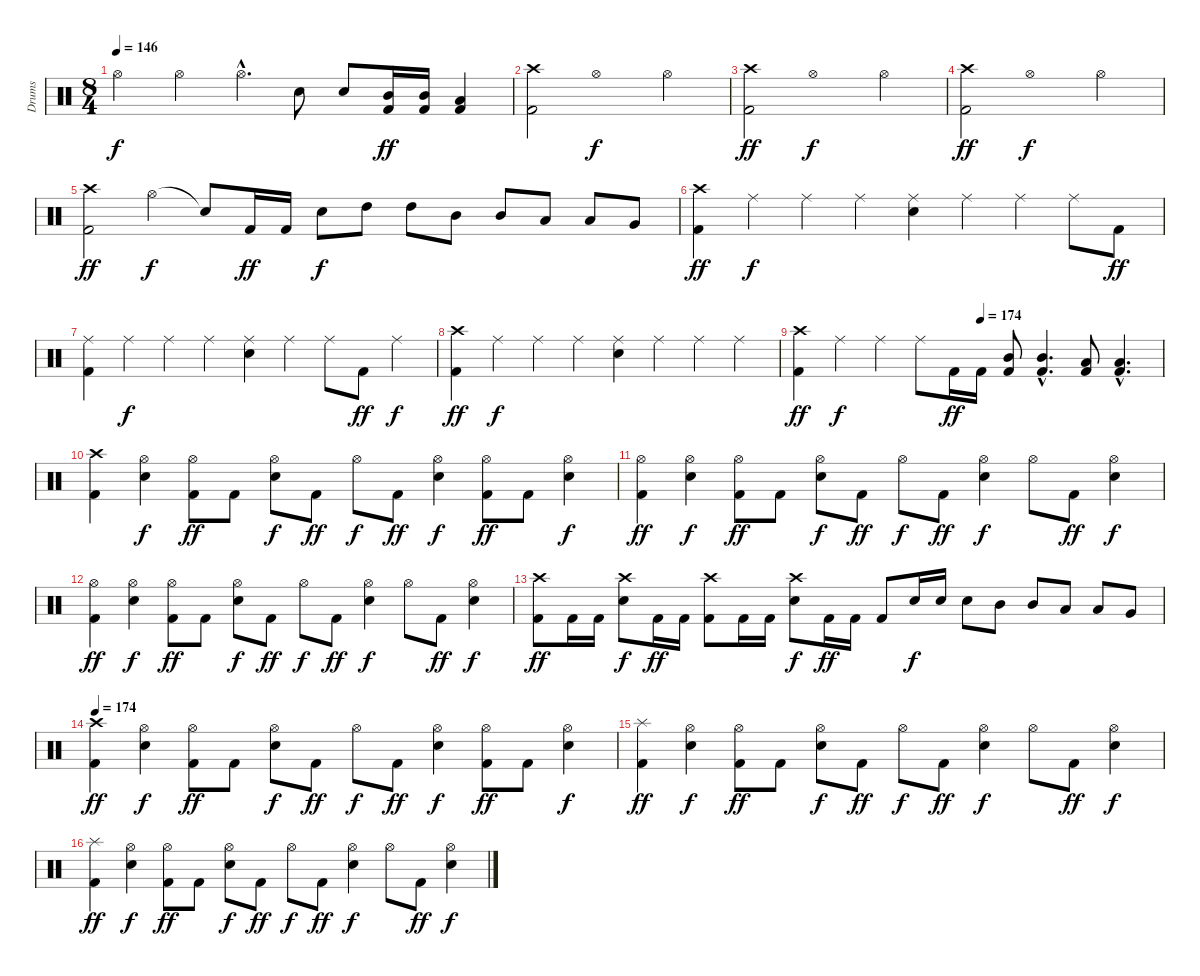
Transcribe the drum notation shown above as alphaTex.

\track ("Drums" "Drums") {instrument percussion}
\staff {score}
\articulation defaults
\ts (8 4)
\tempo 146
\clef neutral
\ks c "Hi-Hat (open)".2{dy f} "Hi-Hat (open)".2 "Hi-Hat (open)"{hac}.4{d} "Snare (hit) 2".8 "Snare (hit) 2".8
("Mid Tom (hit)" "Kick (hit) 2").16{dy ff} ("Mid Tom (hit)" "Kick (hit) 2").16 ("Low Tom (hit)" "Kick (hit) 2").4 |
("Crash high (hit)" "Kick (hit) 2").2 "Hi-Hat (open)".1{dy f} "Hi-Hat (open)".2 |
("Crash high (hit)" "Kick (hit) 2").2{dy ff} "Hi-Hat (open)".1{dy f} "Hi-Hat (open)".2 |
("Crash high (hit)" "Kick (hit) 2").2{dy ff} "Hi-Hat (open)".1{dy f} "Hi-Hat (open)".2 |
("Crash high (hit)" "Kick (hit) 2").2{dy ff} "Hi-Hat (open)".4{dy f} "Snare (hit)"{t}.8 "Kick (hit) 2".16{dy ff} "Kick (hit) 2".16 "Snare (hit) 2".8{dy f} "High Tom (hit)".8 "High Tom (hit)".8 "Mid Tom (hit)".8 "Mid Tom (hit)".8 "Low Tom (hit)".8 "Low Tom (hit)".8 "Very Low Tom (hit)".8 |
("Crash high (hit)" "Kick (hit) 2").4{dy ff} "Ride (middle)".4{dy f} "Ride (middle)".4 "Ride (middle)".4 ("Ride (middle)" "Snare (hit) 2").4 "Ride (middle)".4 "Ride (middle)".4 "Ride (middle)".8 "Kick (hit) 2".8{dy ff} |
("Ride (middle)" "Kick (hit) 2").4 "Ride (middle)".4{dy f} "Ride (middle)".4 "Ride (middle)".4 ("Ride (middle)" "Snare (hit) 2").4 "Ride (middle)".4 "Ride (middle)".8 "Kick (hit) 2".8{dy ff} "Ride (middle)".4{dy f} |
("Crash high (hit)" "Kick (hit) 2").4{dy ff} "Ride (middle)".4{dy f} "Ride (middle)".4 "Ride (middle)".4 ("Ride (middle)" "Snare (hit) 2").4 "Ride (middle)".4 "Ride (middle)".4 "Ride (middle)".4 |
\tempo (174 0.5)
("Crash high (hit)" "Kick (hit) 2").4{dy ff} "Ride (middle)".4{dy f} "Ride (middle)".4 "Ride (middle)".8 "Kick (hit) 2".16{dy ff} "Kick (hit) 2".16 ("Mid Tom (hit)" "Kick (hit) 2").8 ("Mid Tom (hit)"{hac} "Kick (hit) 2"{hac}).4{d} ("Low Tom (hit)" "Kick (hit) 2").8 ("Low Tom (hit)"{hac} "Kick (hit) 2"{hac}).4{d} |
("Crash high (hit)" "Kick (hit) 2").4 ("Hi-Hat (open)" "Snare (hit) 2").4{dy f} ("Hi-Hat (open)" "Kick (hit) 2").8{dy ff} "Kick (hit) 2".8 ("Hi-Hat (open)" "Snare (hit) 2").8{dy f} "Kick (hit) 2".8{dy ff} "Hi-Hat (open)".8{dy f} "Kick (hit) 2".8{dy ff} ("Hi-Hat (open)" "Snare (hit) 2").4{dy f} ("Hi-Hat (open)" "Kick (hit) 2").8{dy ff} "Kick (hit) 2".8 ("Hi-Hat (open)" "Snare (hit) 2").4{dy f} |
("Hi-Hat (open)" "Kick (hit) 2").4{dy ff} ("Hi-Hat (open)" "Snare (hit) 2").4{dy f} ("Hi-Hat (open)" "Kick (hit) 2").8{dy ff} "Kick (hit) 2".8 ("Hi-Hat (open)" "Snare (hit) 2").8{dy f} "Kick (hit) 2".8{dy ff} "Hi-Hat (open)".8{dy f} "Kick (hit) 2".8{dy ff} ("Hi-Hat (open)" "Snare (hit) 2").4{dy f} "Hi-Hat (open)".8 "Kick (hit) 2".8{dy ff} ("Hi-Hat (open)" "Snare (hit) 2").4{dy f} |
("Hi-Hat (open)" "Kick (hit) 2").4{dy ff} ("Hi-Hat (open)" "Snare (hit) 2").4{dy f} ("Hi-Hat (open)" "Kick (hit) 2").8{dy ff} "Kick (hit) 2".8 ("Hi-Hat (open)" "Snare (hit) 2").8{dy f} "Kick (hit) 2".8{dy ff} "Hi-Hat (open)".8{dy f} "Kick (hit) 2".8{dy ff} ("Hi-Hat (open)" "Snare (hit) 2").4{dy f} "Hi-Hat (open)".8 "Kick (hit) 2".8{dy ff} ("Hi-Hat (open)" "Snare (hit) 2").4{dy f} |
("Crash high (hit)" "Kick (hit) 2").8{dy ff} "Kick (hit) 2".16 "Kick (hit) 2".16 ("Crash high (hit)" "Snare (hit) 2").8{dy f} "Kick (hit) 2".16{dy ff} "Kick (hit) 2".16 ("Crash high (hit)" "Kick (hit) 2").8 "Kick (hit) 2".16 "Kick (hit) 2".16 ("Crash high (hit)" "Snare (hit) 2").8{dy f} "Kick (hit) 2".16{dy ff} "Kick (hit) 2".16 "Kick (hit) 2".8 "Snare (hit) 2".16{dy f} "Snare (hit) 2".16 "Snare (hit) 2".8 "Mid Tom (hit)".8 "Mid Tom (hit)".8 "Low Tom (hit)".8 "Low Tom (hit)".8 "Very Low Tom (hit)".8 |
\tempo 174
("Crash high (hit)" "Kick (hit) 2").4{dy ff} ("Hi-Hat (open)" "Snare (hit) 2").4{dy f} ("Hi-Hat (open)" "Kick (hit) 2").8{dy ff} "Kick (hit) 2".8 ("Hi-Hat (open)" "Snare (hit) 2").8{dy f} "Kick (hit) 2".8{dy ff} "Hi-Hat (open)".8{dy f} "Kick (hit) 2".8{dy ff} ("Hi-Hat (open)" "Snare (hit) 2").4{dy f} ("Hi-Hat (open)" "Kick (hit) 2").8{dy ff} "Kick (hit) 2".8 ("Hi-Hat (open)" "Snare (hit) 2").4{dy f} |
("Splash (hit)" "Kick (hit) 2").4{dy ff} ("Hi-Hat (open)" "Snare (hit) 2").4{dy f} ("Hi-Hat (open)" "Kick (hit) 2").8{dy ff} "Kick (hit) 2".8 ("Hi-Hat (open)" "Snare (hit) 2").8{dy f} "Kick (hit) 2".8{dy ff} "Hi-Hat (open)".8{dy f} "Kick (hit) 2".8{dy ff} ("Hi-Hat (open)" "Snare (hit) 2").4{dy f} "Hi-Hat (open)".8 "Kick (hit) 2".8{dy ff} ("Hi-Hat (open)" "Snare (hit) 2").4{dy f} |
("Splash (hit)" "Kick (hit) 2").4{dy ff} ("Hi-Hat (open)" "Snare (hit) 2").4{dy f} ("Hi-Hat (open)" "Kick (hit) 2").8{dy ff} "Kick (hit) 2".8 ("Hi-Hat (open)" "Snare (hit) 2").8{dy f} "Kick (hit) 2".8{dy ff} "Hi-Hat (open)".8{dy f} "Kick (hit) 2".8{dy ff} ("Hi-Hat (open)" "Snare (hit) 2").4{dy f} "Hi-Hat (open)".8 "Kick (hit) 2".8{dy ff} ("Hi-Hat (open)" "Snare (hit) 2").4{dy f}
